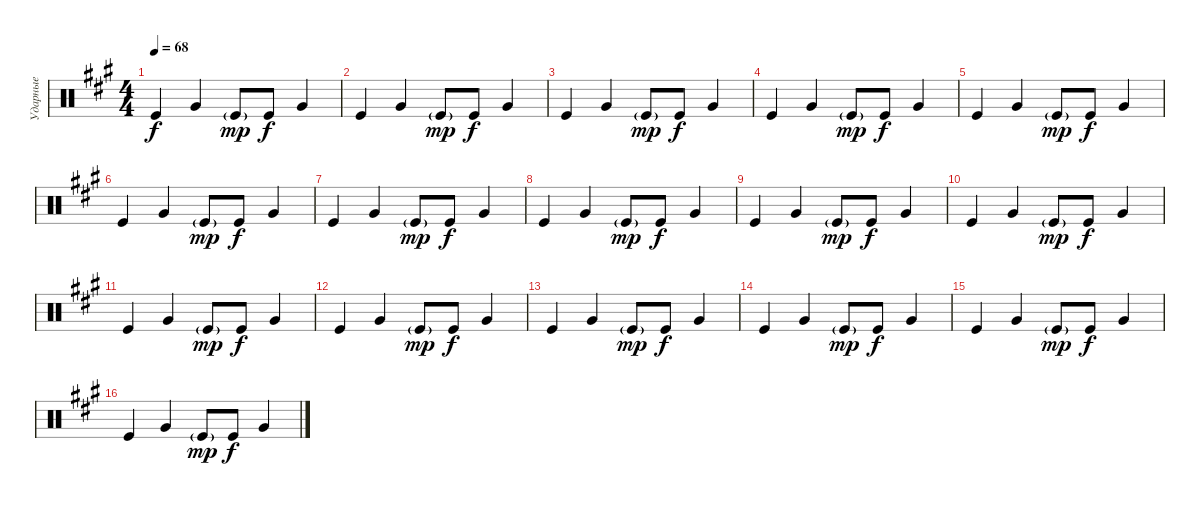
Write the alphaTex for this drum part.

\track ("Ударные" "Ударные") {instrument percussion}
\staff
\articulation defaults
\ts (4 4)
\tempo 68
\clef neutral
\ks a "Kick (hit)".4{dy f} "Very Low Tom (hit)".4 "Kick (hit)"{g}.8{dy mp} "Kick (hit)".8{dy f} "Very Low Tom (hit)".4
|
"Kick (hit)".4 "Very Low Tom (hit)".4 "Kick (hit)"{g}.8{dy mp} "Kick (hit)".8{dy f} "Very Low Tom (hit)".4 |
"Kick (hit)".4 "Very Low Tom (hit)".4 "Kick (hit)"{g}.8{dy mp} "Kick (hit)".8{dy f} "Very Low Tom (hit)".4 |
"Kick (hit)".4 "Very Low Tom (hit)".4 "Kick (hit)"{g}.8{dy mp} "Kick (hit)".8{dy f} "Very Low Tom (hit)".4 |
"Kick (hit)".4 "Very Low Tom (hit)".4 "Kick (hit)"{g}.8{dy mp} "Kick (hit)".8{dy f} "Very Low Tom (hit)".4 |
"Kick (hit)".4 "Very Low Tom (hit)".4 "Kick (hit)"{g}.8{dy mp} "Kick (hit)".8{dy f} "Very Low Tom (hit)".4 |
"Kick (hit)".4 "Very Low Tom (hit)".4 "Kick (hit)"{g}.8{dy mp} "Kick (hit)".8{dy f} "Very Low Tom (hit)".4 |
"Kick (hit)".4 "Very Low Tom (hit)".4 "Kick (hit)"{g}.8{dy mp} "Kick (hit)".8{dy f} "Very Low Tom (hit)".4 |
"Kick (hit)".4 "Very Low Tom (hit)".4 "Kick (hit)"{g}.8{dy mp} "Kick (hit)".8{dy f} "Very Low Tom (hit)".4 |
"Kick (hit)".4 "Very Low Tom (hit)".4 "Kick (hit)"{g}.8{dy mp} "Kick (hit)".8{dy f} "Very Low Tom (hit)".4 |
"Kick (hit)".4 "Very Low Tom (hit)".4 "Kick (hit)"{g}.8{dy mp} "Kick (hit)".8{dy f} "Very Low Tom (hit)".4 |
"Kick (hit)".4 "Very Low Tom (hit)".4 "Kick (hit)"{g}.8{dy mp} "Kick (hit)".8{dy f} "Very Low Tom (hit)".4 |
"Kick (hit)".4 "Very Low Tom (hit)".4 "Kick (hit)"{g}.8{dy mp} "Kick (hit)".8{dy f} "Very Low Tom (hit)".4 |
"Kick (hit)".4 "Very Low Tom (hit)".4 "Kick (hit)"{g}.8{dy mp} "Kick (hit)".8{dy f} "Very Low Tom (hit)".4 |
"Kick (hit)".4 "Very Low Tom (hit)".4 "Kick (hit)"{g}.8{dy mp} "Kick (hit)".8{dy f} "Very Low Tom (hit)".4 |
"Kick (hit)".4 "Very Low Tom (hit)".4 "Kick (hit)"{g}.8{dy mp} "Kick (hit)".8{dy f} "Very Low Tom (hit)".4
